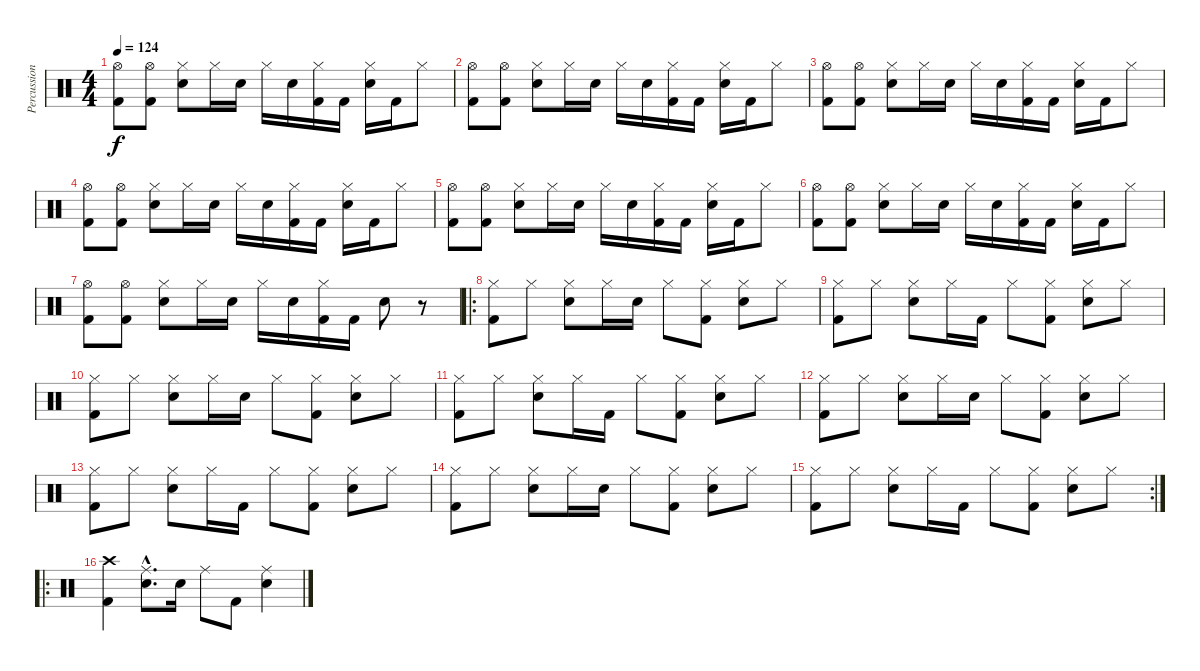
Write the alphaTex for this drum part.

\track ("Percussion" "Percussion") {instrument percussion}
\staff {score}
\articulation defaults
\ts (4 4)
\tempo 124
\clef neutral
\ks c
("Hi-Hat (open)" "Kick (hit) 2").8{dy f} ("Hi-Hat (open)" "Kick (hit) 2").8 ("Hi-Hat (closed)" "Electric Snare (hit)").8 "Hi-Hat (closed)".16 "Electric Snare (hit)".16 "Hi-Hat (closed)".16 "Electric Snare (hit)".16 ("Hi-Hat (closed)" "Kick (hit) 2").16 "Kick (hit) 2".16 ("Hi-Hat (closed)" "Electric Snare (hit)").16 "Kick (hit) 2".16 "Hi-Hat (closed)".8 |
("Hi-Hat (open)" "Kick (hit) 2").8 ("Hi-Hat (open)" "Kick (hit) 2").8 ("Hi-Hat (closed)" "Electric Snare (hit)").8 "Hi-Hat (closed)".16 "Electric Snare (hit)".16 "Hi-Hat (closed)".16 "Electric Snare (hit)".16 ("Hi-Hat (closed)" "Kick (hit) 2").16 "Kick (hit) 2".16 ("Hi-Hat (closed)" "Electric Snare (hit)").16 "Kick (hit) 2".16 "Hi-Hat (closed)".8 |
("Hi-Hat (open)" "Kick (hit) 2").8 ("Hi-Hat (open)" "Kick (hit) 2").8 ("Hi-Hat (closed)" "Electric Snare (hit)").8 "Hi-Hat (closed)".16 "Electric Snare (hit)".16 "Hi-Hat (closed)".16 "Electric Snare (hit)".16 ("Hi-Hat (closed)" "Kick (hit) 2").16 "Kick (hit) 2".16 ("Hi-Hat (closed)" "Electric Snare (hit)").16 "Kick (hit) 2".16 "Hi-Hat (closed)".8 |
("Hi-Hat (open)" "Kick (hit) 2").8 ("Hi-Hat (open)" "Kick (hit) 2").8 ("Hi-Hat (closed)" "Electric Snare (hit)").8 "Hi-Hat (closed)".16 "Electric Snare (hit)".16 "Hi-Hat (closed)".16 "Electric Snare (hit)".16 ("Hi-Hat (closed)" "Kick (hit) 2").16 "Kick (hit) 2".16 ("Hi-Hat (closed)" "Electric Snare (hit)").16 "Kick (hit) 2".16 "Hi-Hat (closed)".8 |
("Hi-Hat (open)" "Kick (hit) 2").8 ("Hi-Hat (open)" "Kick (hit) 2").8 ("Hi-Hat (closed)" "Electric Snare (hit)").8 "Hi-Hat (closed)".16 "Electric Snare (hit)".16 "Hi-Hat (closed)".16 "Electric Snare (hit)".16 ("Hi-Hat (closed)" "Kick (hit) 2").16 "Kick (hit) 2".16 ("Hi-Hat (closed)" "Electric Snare (hit)").16 "Kick (hit) 2".16 "Hi-Hat (closed)".8 |
("Hi-Hat (open)" "Kick (hit) 2").8 ("Hi-Hat (open)" "Kick (hit) 2").8 ("Hi-Hat (closed)" "Electric Snare (hit)").8 "Hi-Hat (closed)".16 "Electric Snare (hit)".16 "Hi-Hat (closed)".16 "Electric Snare (hit)".16 ("Hi-Hat (closed)" "Kick (hit) 2").16 "Kick (hit) 2".16 ("Hi-Hat (closed)" "Electric Snare (hit)").16 "Kick (hit) 2".16 "Hi-Hat (closed)".8 |
("Hi-Hat (open)" "Kick (hit) 2").8 ("Hi-Hat (open)" "Kick (hit) 2").8 ("Hi-Hat (closed)" "Electric Snare (hit)").8 "Hi-Hat (closed)".16 "Electric Snare (hit)".16 "Hi-Hat (closed)".16 "Electric Snare (hit)".16 ("Hi-Hat (closed)" "Kick (hit) 2").16 "Kick (hit) 2".16 "Electric Snare (hit)".8 r.8 |
\ro
("Hi-Hat (closed)" "Kick (hit) 2").8 "Hi-Hat (closed)".8 ("Hi-Hat (closed)" "Electric Snare (hit)").8 "Hi-Hat (closed)".16 "Electric Snare (hit)".16 "Hi-Hat (closed)".8 ("Hi-Hat (closed)" "Kick (hit) 2").8 ("Hi-Hat (closed)" "Electric Snare (hit)").8 "Hi-Hat (closed)".8 |
("Hi-Hat (closed)" "Kick (hit) 2").8 "Hi-Hat (closed)".8 ("Hi-Hat (closed)" "Electric Snare (hit)").8 "Hi-Hat (closed)".16 "Kick (hit) 2".16 "Hi-Hat (closed)".8 ("Hi-Hat (closed)" "Kick (hit) 2").8 ("Hi-Hat (closed)" "Electric Snare (hit)").8 "Hi-Hat (closed)".8 |
("Hi-Hat (closed)" "Kick (hit) 2").8 "Hi-Hat (closed)".8 ("Hi-Hat (closed)" "Electric Snare (hit)").8 "Hi-Hat (closed)".16 "Electric Snare (hit)".16 "Hi-Hat (closed)".8 ("Hi-Hat (closed)" "Kick (hit) 2").8 ("Hi-Hat (closed)" "Electric Snare (hit)").8 "Hi-Hat (closed)".8 |
("Hi-Hat (closed)" "Kick (hit) 2").8 "Hi-Hat (closed)".8 ("Hi-Hat (closed)" "Electric Snare (hit)").8 "Hi-Hat (closed)".16 "Kick (hit) 2".16 "Hi-Hat (closed)".8 ("Hi-Hat (closed)" "Kick (hit) 2").8 ("Hi-Hat (closed)" "Electric Snare (hit)").8 "Hi-Hat (closed)".8 |
("Hi-Hat (closed)" "Kick (hit) 2").8 "Hi-Hat (closed)".8 ("Hi-Hat (closed)" "Electric Snare (hit)").8 "Hi-Hat (closed)".16 "Electric Snare (hit)".16 "Hi-Hat (closed)".8 ("Hi-Hat (closed)" "Kick (hit) 2").8 ("Hi-Hat (closed)" "Electric Snare (hit)").8 "Hi-Hat (closed)".8 |
("Hi-Hat (closed)" "Kick (hit) 2").8 "Hi-Hat (closed)".8 ("Hi-Hat (closed)" "Electric Snare (hit)").8 "Hi-Hat (closed)".16 "Kick (hit) 2".16 "Hi-Hat (closed)".8 ("Hi-Hat (closed)" "Kick (hit) 2").8 ("Hi-Hat (closed)" "Electric Snare (hit)").8 "Hi-Hat (closed)".8 |
("Hi-Hat (closed)" "Kick (hit) 2").8 "Hi-Hat (closed)".8 ("Hi-Hat (closed)" "Electric Snare (hit)").8 "Hi-Hat (closed)".16 "Electric Snare (hit)".16 "Hi-Hat (closed)".8 ("Hi-Hat (closed)" "Kick (hit) 2").8 ("Hi-Hat (closed)" "Electric Snare (hit)").8 "Hi-Hat (closed)".8 |
\rc 2
("Hi-Hat (closed)" "Kick (hit) 2").8 "Hi-Hat (closed)".8 ("Hi-Hat (closed)" "Electric Snare (hit)").8 "Hi-Hat (closed)".16 "Kick (hit) 2".16 "Hi-Hat (closed)".8 ("Hi-Hat (closed)" "Kick (hit) 2").8 ("Hi-Hat (closed)" "Electric Snare (hit)").8 "Hi-Hat (closed)".8 |
\ro
("Crash high (hit)" "Kick (hit) 2").4 ("Ride (middle)"{hac} "Electric Snare (hit)"{hac}).8{d} "Electric Snare (hit)".16 "Ride (middle)".8 "Kick (hit) 2".8 ("Ride (middle)" "Electric Snare (hit)").4
